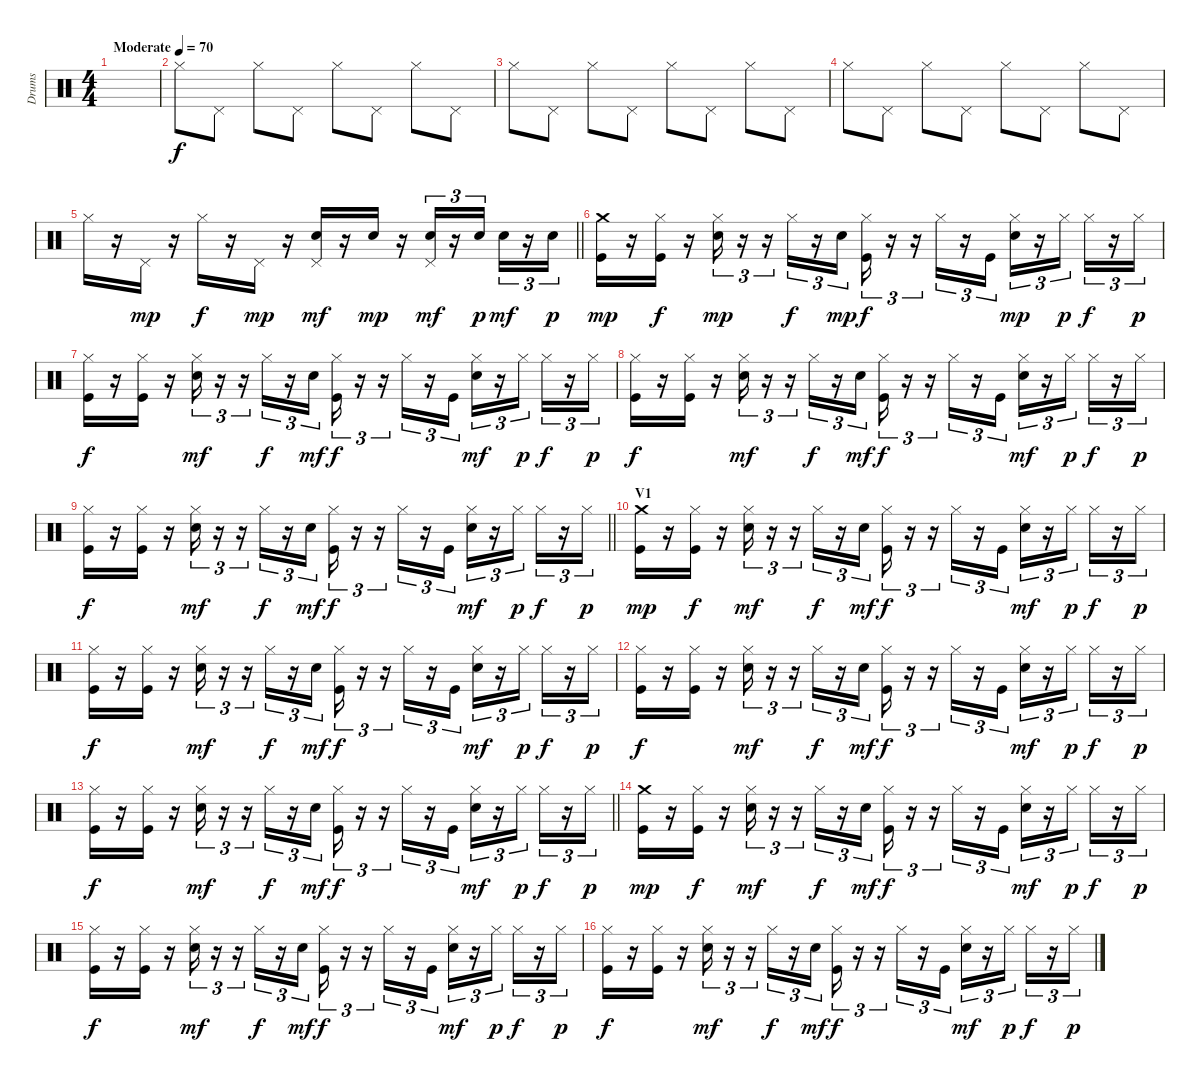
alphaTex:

\track ("Drums" "Drums") {instrument percussion}
\staff {score}
\articulation defaults
\ts (4 4)
\tempo (70 "Moderate")
\clef neutral
\ks c
|
"Hi-Hat (closed)".8 "Pedal Hi-Hat (hit)".8 "Hi-Hat (closed)".8 "Pedal Hi-Hat (hit)".8 "Hi-Hat (closed)".8 "Pedal Hi-Hat (hit)".8 "Hi-Hat (closed)".8 "Pedal Hi-Hat (hit)".8 |
"Hi-Hat (closed)".8 "Pedal Hi-Hat (hit)".8 "Hi-Hat (closed)".8 "Pedal Hi-Hat (hit)".8 "Hi-Hat (closed)".8 "Pedal Hi-Hat (hit)".8 "Hi-Hat (closed)".8 "Pedal Hi-Hat (hit)".8 |
"Hi-Hat (closed)".8 "Pedal Hi-Hat (hit)".8 "Hi-Hat (closed)".8 "Pedal Hi-Hat (hit)".8 "Hi-Hat (closed)".8 "Pedal Hi-Hat (hit)".8 "Hi-Hat (closed)".8 "Pedal Hi-Hat (hit)".8 |
\barLineRight lightlight "Hi-Hat (closed)".16{dy f}
r.16 "Pedal Hi-Hat (hit)".16{dy mp} r.16 "Hi-Hat (closed)".16{dy f} r.16 "Pedal Hi-Hat (hit)".16{dy mp} r.16 ("Electric Snare (hit)" "Pedal Hi-Hat (hit)").16{dy mf} r.16 "Electric Snare (hit)".16{dy mp} r.16 ("Electric Snare (hit)" "Pedal Hi-Hat (hit)").16{tu (3 2) dy mf} r.16{tu (3 2)} "Electric Snare (hit)".16{tu (3 2) dy p} "Electric Snare (hit)".16{tu (3 2) dy mf} r.16{tu (3 2)} "Electric Snare (hit)".16{tu (3 2) dy p} |
\section ("" "")
("Kick (hit)" "Crash medium (hit)").16{dy mp} r.16 ("Kick (hit)" "Hi-Hat (closed)").16{dy f} r.16 ("Electric Snare (hit)" "Hi-Hat (closed)").16{tu (3 2) dy mp} r.16{tu (3 2)} r.16{tu (3 2)} "Hi-Hat (closed)".16{tu (3 2) dy f} r.16{tu (3 2)} "Electric Snare (hit)".16{tu (3 2) dy mp} ("Kick (hit)" "Hi-Hat (closed)").16{tu (3 2) dy f} r.16{tu (3 2)} r.16{tu (3 2)} "Hi-Hat (closed)".16{tu (3 2)} r.16{tu (3 2)} "Kick (hit)".16{tu (3 2)} ("Electric Snare (hit)" "Hi-Hat (closed)").16{tu (3 2) dy mp} r.16{tu (3 2)} "Hi-Hat (closed)".16{tu (3 2) dy p} "Hi-Hat (closed)".16{tu (3 2) dy f} r.16{tu (3 2)} "Hi-Hat (closed)".16{tu (3 2) dy p} |
("Kick (hit)" "Hi-Hat (closed)").16{dy f} r.16 ("Kick (hit)" "Hi-Hat (closed)").16 r.16 ("Electric Snare (hit)" "Hi-Hat (closed)").16{tu (3 2) dy mf} r.16{tu (3 2)} r.16{tu (3 2)} "Hi-Hat (closed)".16{tu (3 2) dy f} r.16{tu (3 2)} "Electric Snare (hit)".16{tu (3 2) dy mf} ("Kick (hit)" "Hi-Hat (closed)").16{tu (3 2) dy f} r.16{tu (3 2)} r.16{tu (3 2)} "Hi-Hat (closed)".16{tu (3 2)} r.16{tu (3 2)} "Kick (hit)".16{tu (3 2)} ("Electric Snare (hit)" "Hi-Hat (closed)").16{tu (3 2) dy mf} r.16{tu (3 2)} "Hi-Hat (closed)".16{tu (3 2) dy p} "Hi-Hat (closed)".16{tu (3 2) dy f} r.16{tu (3 2)} "Hi-Hat (closed)".16{tu (3 2) dy p} |
("Kick (hit)" "Hi-Hat (closed)").16{dy f} r.16 ("Kick (hit)" "Hi-Hat (closed)").16 r.16 ("Electric Snare (hit)" "Hi-Hat (closed)").16{tu (3 2) dy mf} r.16{tu (3 2)} r.16{tu (3 2)} "Hi-Hat (closed)".16{tu (3 2) dy f} r.16{tu (3 2)} "Electric Snare (hit)".16{tu (3 2) dy mf} ("Kick (hit)" "Hi-Hat (closed)").16{tu (3 2) dy f} r.16{tu (3 2)} r.16{tu (3 2)} "Hi-Hat (closed)".16{tu (3 2)} r.16{tu (3 2)} "Kick (hit)".16{tu (3 2)} ("Electric Snare (hit)" "Hi-Hat (closed)").16{tu (3 2) dy mf} r.16{tu (3 2)} "Hi-Hat (closed)".16{tu (3 2) dy p} "Hi-Hat (closed)".16{tu (3 2) dy f} r.16{tu (3 2)} "Hi-Hat (closed)".16{tu (3 2) dy p} |
\barLineRight lightlight
("Kick (hit)" "Hi-Hat (closed)").16{dy f} r.16 ("Kick (hit)" "Hi-Hat (closed)").16 r.16 ("Electric Snare (hit)" "Hi-Hat (closed)").16{tu (3 2) dy mf} r.16{tu (3 2)} r.16{tu (3 2)} "Hi-Hat (closed)".16{tu (3 2) dy f} r.16{tu (3 2)} "Electric Snare (hit)".16{tu (3 2) dy mf} ("Kick (hit)" "Hi-Hat (closed)").16{tu (3 2) dy f} r.16{tu (3 2)} r.16{tu (3 2)} "Hi-Hat (closed)".16{tu (3 2)} r.16{tu (3 2)} "Kick (hit)".16{tu (3 2)} ("Electric Snare (hit)" "Hi-Hat (closed)").16{tu (3 2) dy mf} r.16{tu (3 2)} "Hi-Hat (closed)".16{tu (3 2) dy p} "Hi-Hat (closed)".16{tu (3 2) dy f} r.16{tu (3 2)} "Hi-Hat (closed)".16{tu (3 2) dy p} |
\section ("" "V1")
("Kick (hit)" "Crash medium (hit)").16{dy mp} r.16 ("Kick (hit)" "Hi-Hat (closed)").16{dy f} r.16 ("Electric Snare (hit)" "Hi-Hat (closed)").16{tu (3 2) dy mf} r.16{tu (3 2)} r.16{tu (3 2)} "Hi-Hat (closed)".16{tu (3 2) dy f} r.16{tu (3 2)} "Electric Snare (hit)".16{tu (3 2) dy mf} ("Kick (hit)" "Hi-Hat (closed)").16{tu (3 2) dy f} r.16{tu (3 2)} r.16{tu (3 2)} "Hi-Hat (closed)".16{tu (3 2)} r.16{tu (3 2)} "Kick (hit)".16{tu (3 2)} ("Electric Snare (hit)" "Hi-Hat (closed)").16{tu (3 2) dy mf} r.16{tu (3 2)} "Hi-Hat (closed)".16{tu (3 2) dy p} "Hi-Hat (closed)".16{tu (3 2) dy f} r.16{tu (3 2)} "Hi-Hat (closed)".16{tu (3 2) dy p} |
("Kick (hit)" "Hi-Hat (closed)").16{dy f} r.16 ("Kick (hit)" "Hi-Hat (closed)").16 r.16 ("Electric Snare (hit)" "Hi-Hat (closed)").16{tu (3 2) dy mf} r.16{tu (3 2)} r.16{tu (3 2)} "Hi-Hat (closed)".16{tu (3 2) dy f} r.16{tu (3 2)} "Electric Snare (hit)".16{tu (3 2) dy mf} ("Kick (hit)" "Hi-Hat (closed)").16{tu (3 2) dy f} r.16{tu (3 2)} r.16{tu (3 2)} "Hi-Hat (closed)".16{tu (3 2)} r.16{tu (3 2)} "Kick (hit)".16{tu (3 2)} ("Electric Snare (hit)" "Hi-Hat (closed)").16{tu (3 2) dy mf} r.16{tu (3 2)} "Hi-Hat (closed)".16{tu (3 2) dy p} "Hi-Hat (closed)".16{tu (3 2) dy f} r.16{tu (3 2)} "Hi-Hat (closed)".16{tu (3 2) dy p} |
("Kick (hit)" "Hi-Hat (closed)").16{dy f} r.16 ("Kick (hit)" "Hi-Hat (closed)").16 r.16 ("Electric Snare (hit)" "Hi-Hat (closed)").16{tu (3 2) dy mf} r.16{tu (3 2)} r.16{tu (3 2)} "Hi-Hat (closed)".16{tu (3 2) dy f} r.16{tu (3 2)} "Electric Snare (hit)".16{tu (3 2) dy mf} ("Kick (hit)" "Hi-Hat (closed)").16{tu (3 2) dy f} r.16{tu (3 2)} r.16{tu (3 2)} "Hi-Hat (closed)".16{tu (3 2)} r.16{tu (3 2)} "Kick (hit)".16{tu (3 2)} ("Electric Snare (hit)" "Hi-Hat (closed)").16{tu (3 2) dy mf} r.16{tu (3 2)} "Hi-Hat (closed)".16{tu (3 2) dy p} "Hi-Hat (closed)".16{tu (3 2) dy f} r.16{tu (3 2)} "Hi-Hat (closed)".16{tu (3 2) dy p} |
\barLineRight lightlight
("Kick (hit)" "Hi-Hat (closed)").16{dy f} r.16 ("Kick (hit)" "Hi-Hat (closed)").16 r.16 ("Electric Snare (hit)" "Hi-Hat (closed)").16{tu (3 2) dy mf} r.16{tu (3 2)} r.16{tu (3 2)} "Hi-Hat (closed)".16{tu (3 2) dy f} r.16{tu (3 2)} "Electric Snare (hit)".16{tu (3 2) dy mf} ("Kick (hit)" "Hi-Hat (closed)").16{tu (3 2) dy f} r.16{tu (3 2)} r.16{tu (3 2)} "Hi-Hat (closed)".16{tu (3 2)} r.16{tu (3 2)} "Kick (hit)".16{tu (3 2)} ("Electric Snare (hit)" "Hi-Hat (closed)").16{tu (3 2) dy mf} r.16{tu (3 2)} "Hi-Hat (closed)".16{tu (3 2) dy p} "Hi-Hat (closed)".16{tu (3 2) dy f} r.16{tu (3 2)} "Hi-Hat (closed)".16{tu (3 2) dy p} |
("Kick (hit)" "Crash medium (hit)").16{dy mp} r.16 ("Kick (hit)" "Hi-Hat (closed)").16{dy f} r.16 ("Electric Snare (hit)" "Hi-Hat (closed)").16{tu (3 2) dy mf} r.16{tu (3 2)} r.16{tu (3 2)} "Hi-Hat (closed)".16{tu (3 2) dy f} r.16{tu (3 2)} "Electric Snare (hit)".16{tu (3 2) dy mf} ("Kick (hit)" "Hi-Hat (closed)").16{tu (3 2) dy f} r.16{tu (3 2)} r.16{tu (3 2)} "Hi-Hat (closed)".16{tu (3 2)} r.16{tu (3 2)} "Kick (hit)".16{tu (3 2)} ("Electric Snare (hit)" "Hi-Hat (closed)").16{tu (3 2) dy mf} r.16{tu (3 2)} "Hi-Hat (closed)".16{tu (3 2) dy p} "Hi-Hat (closed)".16{tu (3 2) dy f} r.16{tu (3 2)} "Hi-Hat (closed)".16{tu (3 2) dy p} |
("Kick (hit)" "Hi-Hat (closed)").16{dy f} r.16 ("Kick (hit)" "Hi-Hat (closed)").16 r.16 ("Electric Snare (hit)" "Hi-Hat (closed)").16{tu (3 2) dy mf} r.16{tu (3 2)} r.16{tu (3 2)} "Hi-Hat (closed)".16{tu (3 2) dy f} r.16{tu (3 2)} "Electric Snare (hit)".16{tu (3 2) dy mf} ("Kick (hit)" "Hi-Hat (closed)").16{tu (3 2) dy f} r.16{tu (3 2)} r.16{tu (3 2)} "Hi-Hat (closed)".16{tu (3 2)} r.16{tu (3 2)} "Kick (hit)".16{tu (3 2)} ("Electric Snare (hit)" "Hi-Hat (closed)").16{tu (3 2) dy mf} r.16{tu (3 2)} "Hi-Hat (closed)".16{tu (3 2) dy p} "Hi-Hat (closed)".16{tu (3 2) dy f} r.16{tu (3 2)} "Hi-Hat (closed)".16{tu (3 2) dy p} |
("Kick (hit)" "Hi-Hat (closed)").16{dy f} r.16 ("Kick (hit)" "Hi-Hat (closed)").16 r.16 ("Electric Snare (hit)" "Hi-Hat (closed)").16{tu (3 2) dy mf} r.16{tu (3 2)} r.16{tu (3 2)} "Hi-Hat (closed)".16{tu (3 2) dy f} r.16{tu (3 2)} "Electric Snare (hit)".16{tu (3 2) dy mf} ("Kick (hit)" "Hi-Hat (closed)").16{tu (3 2) dy f} r.16{tu (3 2)} r.16{tu (3 2)} "Hi-Hat (closed)".16{tu (3 2)} r.16{tu (3 2)} "Kick (hit)".16{tu (3 2)} ("Electric Snare (hit)" "Hi-Hat (closed)").16{tu (3 2) dy mf} r.16{tu (3 2)} "Hi-Hat (closed)".16{tu (3 2) dy p} "Hi-Hat (closed)".16{tu (3 2) dy f} r.16{tu (3 2)} "Hi-Hat (closed)".16{tu (3 2) dy p}
